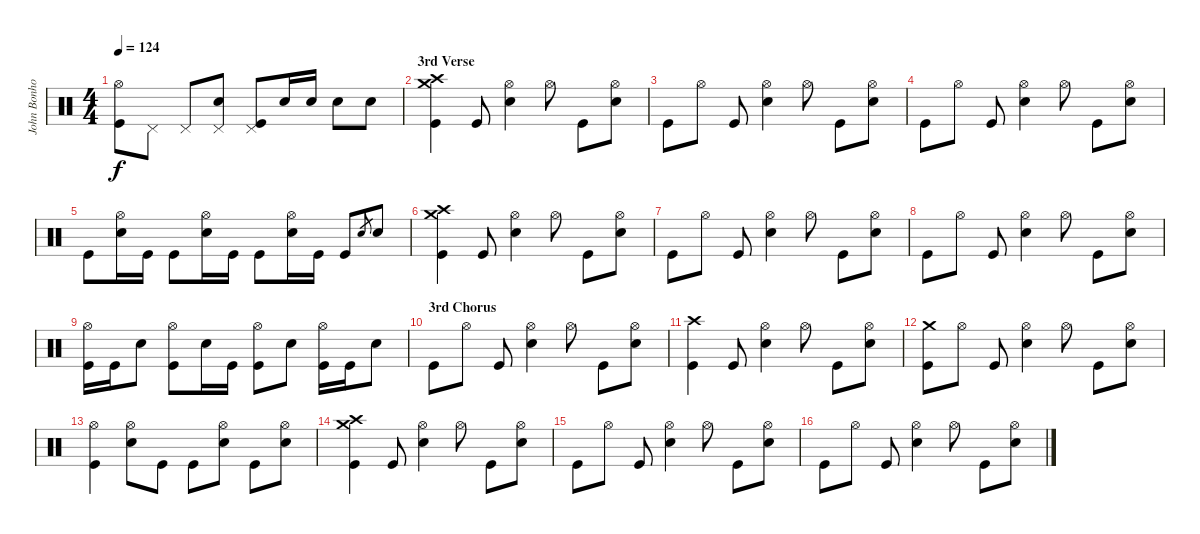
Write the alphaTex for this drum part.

\track ("John Bonhom" "John Bonho") {instrument percussion}
\staff {score}
\articulation defaults
\ts (4 4)
\tempo 124
\clef neutral
\ks c
("Hi-Hat (open)" "Kick (hit)").8{dy f} "Pedal Hi-Hat (hit)".8 "Pedal Hi-Hat (hit)".8 ("Pedal Hi-Hat (hit)" "Electric Snare (hit)").8 ("Pedal Hi-Hat (hit)" "Kick (hit)").8 "Electric Snare (hit)".16 "Electric Snare (hit)".16 "Electric Snare (hit)".8 "Electric Snare (hit)".8 |
\section ("" "3rd Verse")
("Crash high (hit)" "Crash medium (hit)" "Kick (hit)").4 "Kick (hit)".8 ("Hi-Hat (open)" "Electric Snare (hit)").4 "Hi-Hat (open)".8 "Kick (hit)".8 ("Hi-Hat (open)" "Electric Snare (hit)").8 |
"Kick (hit)".8 "Hi-Hat (open)".8 "Kick (hit)".8 ("Hi-Hat (open)" "Electric Snare (hit)").4 "Hi-Hat (open)".8 "Kick (hit)".8 ("Hi-Hat (open)" "Electric Snare (hit)").8 |
"Kick (hit)".8 "Hi-Hat (open)".8 "Kick (hit)".8 ("Hi-Hat (open)" "Electric Snare (hit)").4 "Hi-Hat (open)".8 "Kick (hit)".8 ("Hi-Hat (open)" "Electric Snare (hit)").8 |
"Kick (hit)".8 ("Hi-Hat (open)" "Electric Snare (hit)").16 "Kick (hit)".16 "Kick (hit)".8 ("Hi-Hat (open)" "Electric Snare (hit)").16 "Kick (hit)".16 "Kick (hit)".8 ("Hi-Hat (open)" "Electric Snare (hit)").16 "Kick (hit)".16 "Kick (hit)".8 "Electric Snare (hit)".8{gr} "Electric Snare (hit)".8 |
("Crash high (hit)" "Crash medium (hit)" "Kick (hit)").4 "Kick (hit)".8 ("Hi-Hat (open)" "Electric Snare (hit)").4 "Hi-Hat (open)".8 "Kick (hit)".8 ("Hi-Hat (open)" "Electric Snare (hit)").8 |
"Kick (hit)".8 "Hi-Hat (open)".8 "Kick (hit)".8 ("Hi-Hat (open)" "Electric Snare (hit)").4 "Hi-Hat (open)".8 "Kick (hit)".8 ("Hi-Hat (open)" "Electric Snare (hit)").8 |
"Kick (hit)".8 "Hi-Hat (open)".8 "Kick (hit)".8 ("Hi-Hat (open)" "Electric Snare (hit)").4 "Hi-Hat (open)".8 "Kick (hit)".8 ("Hi-Hat (open)" "Electric Snare (hit)").8 |
("Hi-Hat (open)" "Kick (hit)").16 "Kick (hit)".16 "Electric Snare (hit)".8 ("Hi-Hat (open)" "Kick (hit)").8 "Electric Snare (hit)".16 "Kick (hit)".16 ("Hi-Hat (open)" "Kick (hit)").8 "Electric Snare (hit)".8 ("Hi-Hat (open)" "Kick (hit)").16 "Kick (hit)".16 "Electric Snare (hit)".8 |
\section ("" "3rd Chorus")
"Kick (hit)".8 "Hi-Hat (open)".8 "Kick (hit)".8 ("Hi-Hat (open)" "Electric Snare (hit)").4 "Hi-Hat (open)".8 "Kick (hit)".8 ("Hi-Hat (open)" "Electric Snare (hit)").8 |
("Crash high (hit)" "Kick (hit)").4 "Kick (hit)".8 ("Hi-Hat (open)" "Electric Snare (hit)").4 "Hi-Hat (open)".8 "Kick (hit)".8 ("Hi-Hat (open)" "Electric Snare (hit)").8 |
("Crash medium (hit)" "Kick (hit)").8 "Hi-Hat (open)".8 "Kick (hit)".8 ("Hi-Hat (open)" "Electric Snare (hit)").4 "Hi-Hat (open)".8 "Kick (hit)".8 ("Hi-Hat (open)" "Electric Snare (hit)").8 |
("Hi-Hat (open)" "Kick (hit)").4 ("Hi-Hat (open)" "Electric Snare (hit)").8 "Kick (hit)".8 "Kick (hit)".8 ("Hi-Hat (open)" "Electric Snare (hit)").8 "Kick (hit)".8 ("Hi-Hat (open)" "Electric Snare (hit)").8 |
("Crash high (hit)" "Crash medium (hit)" "Kick (hit)").4 "Kick (hit)".8 ("Hi-Hat (open)" "Electric Snare (hit)").4 "Hi-Hat (open)".8 "Kick (hit)".8 ("Hi-Hat (open)" "Electric Snare (hit)").8 |
"Kick (hit)".8 "Hi-Hat (open)".8 "Kick (hit)".8 ("Hi-Hat (open)" "Electric Snare (hit)").4 "Hi-Hat (open)".8 "Kick (hit)".8 ("Hi-Hat (open)" "Electric Snare (hit)").8 |
"Kick (hit)".8 "Hi-Hat (open)".8 "Kick (hit)".8 ("Hi-Hat (open)" "Electric Snare (hit)").4 "Hi-Hat (open)".8 "Kick (hit)".8 ("Hi-Hat (open)" "Electric Snare (hit)").8
